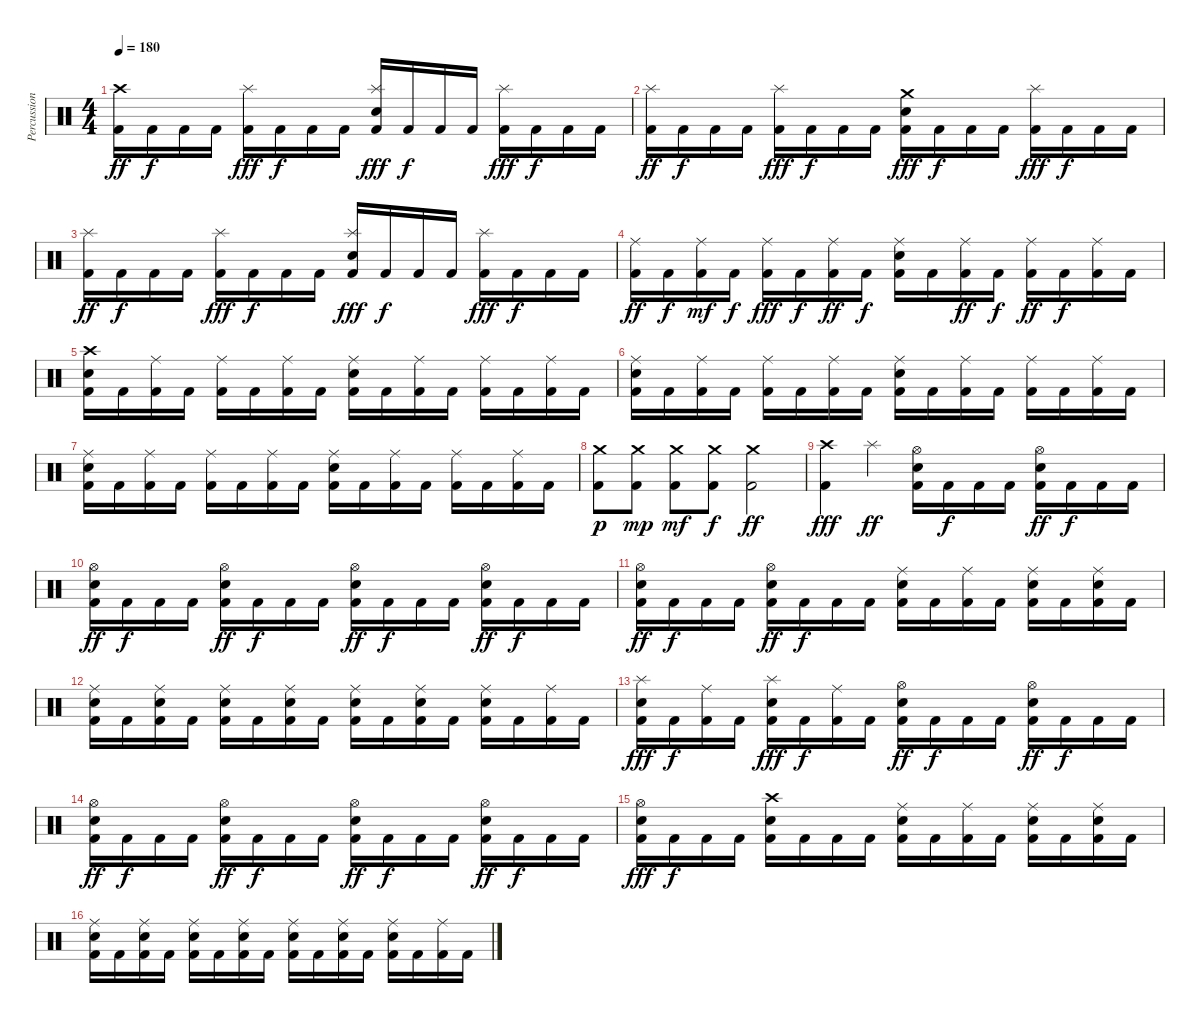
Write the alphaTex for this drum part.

\track ("Percussion" "Percussion") {instrument percussion}
\staff {score}
\articulation defaults
\ts (4 4)
\tempo 180
\clef neutral
\ks c
("Crash high (hit)" "Kick (hit) 2").16{dy ff} "Kick (hit) 2".16{dy f} "Kick (hit) 2".16 "Kick (hit) 2".16 ("Splash (hit)" "Kick (hit) 2").16{dy fff} "Kick (hit) 2".16{dy f} "Kick (hit) 2".16 "Kick (hit) 2".16 ("Splash (hit)" "Electric Snare (hit)" "Kick (hit) 2").16{dy fff} "Kick (hit) 2".16{dy f} "Kick (hit) 2".16 "Kick (hit) 2".16 ("Splash (hit)" "Kick (hit) 2").16{dy fff} "Kick (hit) 2".16{dy f} "Kick (hit) 2".16 "Kick (hit) 2".16 |
("Splash (hit)" "Kick (hit) 2").16{dy ff} "Kick (hit) 2".16{dy f} "Kick (hit) 2".16 "Kick (hit) 2".16 ("Splash (hit)" "Kick (hit) 2").16{dy fff} "Kick (hit) 2".16{dy f} "Kick (hit) 2".16 "Kick (hit) 2".16 ("Crash medium (hit)" "Electric Snare (hit)" "Kick (hit) 2").16{dy fff} "Kick (hit) 2".16{dy f} "Kick (hit) 2".16 "Kick (hit) 2".16 ("Splash (hit)" "Kick (hit) 2").16{dy fff} "Kick (hit) 2".16{dy f} "Kick (hit) 2".16 "Kick (hit) 2".16 |
("Splash (hit)" "Kick (hit) 2").16{dy ff} "Kick (hit) 2".16{dy f} "Kick (hit) 2".16 "Kick (hit) 2".16 ("Splash (hit)" "Kick (hit) 2").16{dy fff} "Kick (hit) 2".16{dy f} "Kick (hit) 2".16 "Kick (hit) 2".16 ("Splash (hit)" "Electric Snare (hit)" "Kick (hit) 2").16{dy fff} "Kick (hit) 2".16{dy f} "Kick (hit) 2".16 "Kick (hit) 2".16 ("Splash (hit)" "Kick (hit) 2").16{dy fff} "Kick (hit) 2".16{dy f} "Kick (hit) 2".16 "Kick (hit) 2".16 |
("Ride (middle)" "Kick (hit) 2").16{dy ff} "Kick (hit) 2".16{dy f} ("Ride (middle)" "Kick (hit) 2").16{dy mf} "Kick (hit) 2".16{dy f} ("Ride (middle)" "Kick (hit) 2").16{dy fff} "Kick (hit) 2".16{dy f} ("Ride (middle)" "Kick (hit) 2").16{dy ff} "Kick (hit) 2".16{dy f} ("Ride (middle)" "Electric Snare (hit)" "Kick (hit) 2").16 "Kick (hit) 2".16 ("Ride (middle)" "Kick (hit) 2").16{dy ff} "Kick (hit) 2".16{dy f} ("Ride (middle)" "Kick (hit) 2").16{dy ff} "Kick (hit) 2".16{dy f} ("Ride (middle)" "Kick (hit) 2").16 "Kick (hit) 2".16 |
("Crash high (hit)" "Electric Snare (hit)" "Kick (hit) 2").16 "Kick (hit) 2".16 ("Ride (middle)" "Kick (hit) 2").16 "Kick (hit) 2".16 ("Ride (middle)" "Kick (hit) 2").16 "Kick (hit) 2".16 ("Ride (middle)" "Kick (hit) 2").16 "Kick (hit) 2".16 ("Ride (middle)" "Electric Snare (hit)" "Kick (hit) 2").16 "Kick (hit) 2".16 ("Ride (middle)" "Kick (hit) 2").16 "Kick (hit) 2".16 ("Ride (middle)" "Kick (hit) 2").16 "Kick (hit) 2".16 ("Ride (middle)" "Kick (hit) 2").16 "Kick (hit) 2".16 |
("Ride (middle)" "Electric Snare (hit)" "Kick (hit) 2").16 "Kick (hit) 2".16 ("Ride (middle)" "Kick (hit) 2").16 "Kick (hit) 2".16 ("Ride (middle)" "Kick (hit) 2").16 "Kick (hit) 2".16 ("Ride (middle)" "Kick (hit) 2").16 "Kick (hit) 2".16 ("Ride (middle)" "Electric Snare (hit)" "Kick (hit) 2").16 "Kick (hit) 2".16 ("Ride (middle)" "Kick (hit) 2").16 "Kick (hit) 2".16 ("Ride (middle)" "Kick (hit) 2").16 "Kick (hit) 2".16 ("Ride (middle)" "Kick (hit) 2").16 "Kick (hit) 2".16 |
("Ride (middle)" "Electric Snare (hit)" "Kick (hit) 2").16 "Kick (hit) 2".16 ("Ride (middle)" "Kick (hit) 2").16 "Kick (hit) 2".16 ("Ride (middle)" "Kick (hit) 2").16 "Kick (hit) 2".16 ("Ride (middle)" "Kick (hit) 2").16 "Kick (hit) 2".16 ("Ride (middle)" "Electric Snare (hit)" "Kick (hit) 2").16 "Kick (hit) 2".16 ("Ride (middle)" "Kick (hit) 2").16 "Kick (hit) 2".16 ("Ride (middle)" "Kick (hit) 2").16 "Kick (hit) 2".16 ("Ride (middle)" "Kick (hit) 2").16 "Kick (hit) 2".16 |
("Crash medium (hit)" "Kick (hit) 2").8{dy p} ("Crash medium (hit)" "Kick (hit) 2").8{dy mp} ("Crash medium (hit)" "Kick (hit) 2").8{dy mf} ("Crash medium (hit)" "Kick (hit) 2").8{dy f} ("Crash medium (hit)" "Kick (hit) 2").2{dy ff} |
("Crash high (hit)" "Kick (hit) 2").4{dy fff} "Splash (hit)".4{dy ff} ("Hi-Hat (open)" "Electric Snare (hit)" "Kick (hit) 2").16 "Kick (hit) 2".16{dy f} "Kick (hit) 2".16 "Kick (hit) 2".16 ("Hi-Hat (open)" "Electric Snare (hit)" "Kick (hit) 2").16{dy ff} "Kick (hit) 2".16{dy f} "Kick (hit) 2".16 "Kick (hit) 2".16 |
("Hi-Hat (open)" "Electric Snare (hit)" "Kick (hit) 2").16{dy ff} "Kick (hit) 2".16{dy f} "Kick (hit) 2".16 "Kick (hit) 2".16 ("Hi-Hat (open)" "Electric Snare (hit)" "Kick (hit) 2").16{dy ff} "Kick (hit) 2".16{dy f} "Kick (hit) 2".16 "Kick (hit) 2".16 ("Hi-Hat (open)" "Electric Snare (hit)" "Kick (hit) 2").16{dy ff} "Kick (hit) 2".16{dy f} "Kick (hit) 2".16 "Kick (hit) 2".16 ("Hi-Hat (open)" "Electric Snare (hit)" "Kick (hit) 2").16{dy ff} "Kick (hit) 2".16{dy f} "Kick (hit) 2".16 "Kick (hit) 2".16 |
("Hi-Hat (open)" "Electric Snare (hit)" "Kick (hit) 2").16{dy ff} "Kick (hit) 2".16{dy f} "Kick (hit) 2".16 "Kick (hit) 2".16 ("Hi-Hat (open)" "Electric Snare (hit)" "Kick (hit) 2").16{dy ff} "Kick (hit) 2".16{dy f} "Kick (hit) 2".16 "Kick (hit) 2".16 ("Ride (middle)" "Electric Snare (hit)" "Kick (hit) 2").16 "Kick (hit) 2".16 ("Ride (middle)" "Kick (hit) 2").16 "Kick (hit) 2".16 ("Ride (middle)" "Electric Snare (hit)" "Kick (hit) 2").16 "Kick (hit) 2".16 ("Ride (middle)" "Electric Snare (hit)" "Kick (hit) 2").16 "Kick (hit) 2".16 |
("Ride (middle)" "Electric Snare (hit)" "Kick (hit) 2").16 "Kick (hit) 2".16 ("Ride (middle)" "Electric Snare (hit)" "Kick (hit) 2").16 "Kick (hit) 2".16 ("Ride (middle)" "Electric Snare (hit)" "Kick (hit) 2").16 "Kick (hit) 2".16 ("Ride (middle)" "Electric Snare (hit)" "Kick (hit) 2").16 "Kick (hit) 2".16 ("Ride (middle)" "Electric Snare (hit)" "Kick (hit) 2").16 "Kick (hit) 2".16 ("Ride (middle)" "Electric Snare (hit)" "Kick (hit) 2").16 "Kick (hit) 2".16 ("Ride (middle)" "Electric Snare (hit)" "Kick (hit) 2").16 "Kick (hit) 2".16 ("Ride (middle)" "Kick (hit) 2").16 "Kick (hit) 2".16 |
("Splash (hit)" "Electric Snare (hit)" "Kick (hit) 2").16{dy fff} "Kick (hit) 2".16{dy f} ("Ride (middle)" "Kick (hit) 2").16 "Kick (hit) 2".16 ("Splash (hit)" "Electric Snare (hit)" "Kick (hit) 2").16{dy fff} "Kick (hit) 2".16{dy f} ("Ride (middle)" "Kick (hit) 2").16 "Kick (hit) 2".16 ("Hi-Hat (open)" "Electric Snare (hit)" "Kick (hit) 2").16{dy ff} "Kick (hit) 2".16{dy f} "Kick (hit) 2".16 "Kick (hit) 2".16 ("Hi-Hat (open)" "Electric Snare (hit)" "Kick (hit) 2").16{dy ff} "Kick (hit) 2".16{dy f} "Kick (hit) 2".16 "Kick (hit) 2".16 |
("Hi-Hat (open)" "Electric Snare (hit)" "Kick (hit) 2").16{dy ff} "Kick (hit) 2".16{dy f} "Kick (hit) 2".16 "Kick (hit) 2".16 ("Hi-Hat (open)" "Electric Snare (hit)" "Kick (hit) 2").16{dy ff} "Kick (hit) 2".16{dy f} "Kick (hit) 2".16 "Kick (hit) 2".16 ("Hi-Hat (open)" "Electric Snare (hit)" "Kick (hit) 2").16{dy ff} "Kick (hit) 2".16{dy f} "Kick (hit) 2".16 "Kick (hit) 2".16 ("Hi-Hat (open)" "Electric Snare (hit)" "Kick (hit) 2").16{dy ff} "Kick (hit) 2".16{dy f} "Kick (hit) 2".16 "Kick (hit) 2".16 |
("Hi-Hat (open)" "Electric Snare (hit)" "Kick (hit) 2").16{dy fff} "Kick (hit) 2".16{dy f} "Kick (hit) 2".16 "Kick (hit) 2".16 ("Crash high (hit)" "Electric Snare (hit)" "Kick (hit) 2").16 "Kick (hit) 2".16 "Kick (hit) 2".16 "Kick (hit) 2".16 ("Ride (middle)" "Electric Snare (hit)" "Kick (hit) 2").16 "Kick (hit) 2".16 ("Ride (middle)" "Kick (hit) 2").16 "Kick (hit) 2".16 ("Ride (middle)" "Electric Snare (hit)" "Kick (hit) 2").16 "Kick (hit) 2".16 ("Ride (middle)" "Electric Snare (hit)" "Kick (hit) 2").16 "Kick (hit) 2".16 |
("Ride (middle)" "Electric Snare (hit)" "Kick (hit) 2").16 "Kick (hit) 2".16 ("Ride (middle)" "Electric Snare (hit)" "Kick (hit) 2").16 "Kick (hit) 2".16 ("Ride (middle)" "Electric Snare (hit)" "Kick (hit) 2").16 "Kick (hit) 2".16 ("Ride (middle)" "Electric Snare (hit)" "Kick (hit) 2").16 "Kick (hit) 2".16 ("Ride (middle)" "Electric Snare (hit)" "Kick (hit) 2").16 "Kick (hit) 2".16 ("Ride (middle)" "Electric Snare (hit)" "Kick (hit) 2").16 "Kick (hit) 2".16 ("Ride (middle)" "Electric Snare (hit)" "Kick (hit) 2").16 "Kick (hit) 2".16 ("Ride (middle)" "Kick (hit) 2").16 "Kick (hit) 2".16
